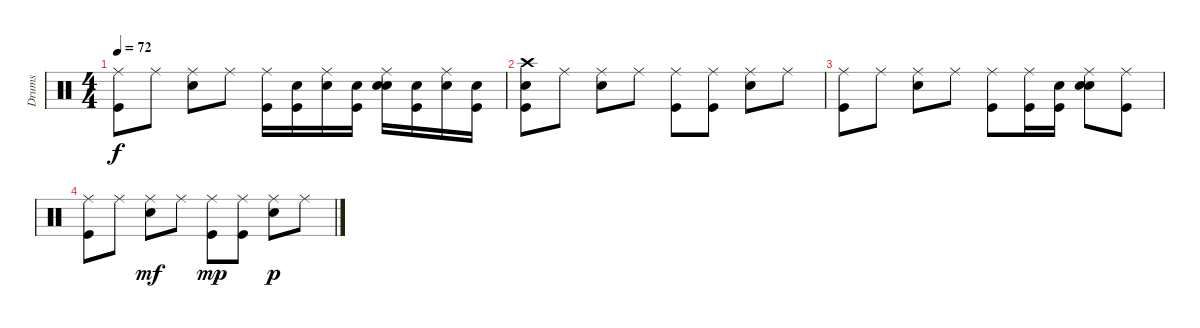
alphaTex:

\track ("Drums" "Drums") {instrument percussion}
\staff {score}
\articulation defaults
\ts (4 4)
\tempo 72
\clef neutral
\ks c
("Ride (middle)" "Kick (hit)").8{dy f} "Ride (middle)".8 ("Ride (middle)" "Snare (hit) 2").8 "Ride (middle)".8 ("Ride (middle)" "Kick (hit)").16 ("Snare (hit)" "Kick (hit)").16 ("Snare (hit)" "Ride (middle)").16 ("Snare (hit)" "Kick (hit)").16 ("Snare (hit)" "Ride (middle)" "Snare (hit) 2").16 ("Snare (hit)" "Kick (hit)").16 ("Snare (hit)" "Ride (middle)").16 ("Snare (hit)" "Kick (hit)").16 |
("Snare (hit)" "Crash high (hit)" "Kick (hit)").8 "Ride (middle)".8 ("Ride (middle)" "Snare (hit) 2").8 "Ride (middle)".8 ("Ride (middle)" "Kick (hit)").8 ("Ride (middle)" "Kick (hit)").8 ("Ride (middle)" "Snare (hit) 2").8 "Ride (middle)".8 |
("Ride (middle)" "Kick (hit)").8 "Ride (middle)".8 ("Ride (middle)" "Snare (hit) 2").8 "Ride (middle)".8 ("Ride (middle)" "Kick (hit)").8 ("Ride (middle)" "Kick (hit)").16 ("Snare (hit)" "Kick (hit)").16 ("Snare (hit)" "Ride (middle)" "Snare (hit) 2").8 ("Ride (middle)" "Kick (hit)").8 |
("Ride (middle)" "Kick (hit)").8 "Ride (middle)".8 ("Ride (middle)" "Snare (hit) 2").8{dy mf} "Ride (middle)".8 ("Ride (middle)" "Kick (hit)").8{dy mp} ("Ride (middle)" "Kick (hit)").8 ("Ride (middle)" "Snare (hit) 2").8{dy p} "Ride (middle)".8
